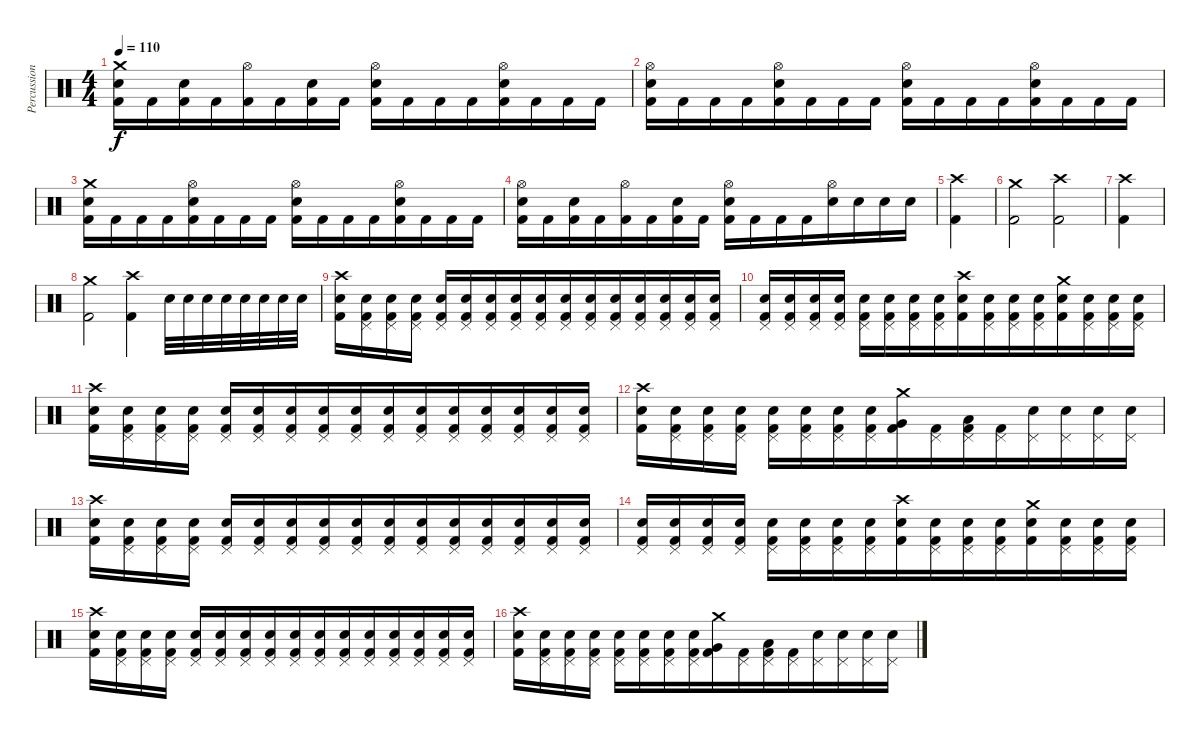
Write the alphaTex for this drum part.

\track ("Percussion" "Percussion") {instrument percussion bank 36}
\staff {score}
\articulation defaults
\ts (4 4)
\tempo 110
\clef neutral
\ks c
("Crash medium (hit)" "Electric Snare (hit)" "Kick (hit) 2").16{dy f} "Kick (hit) 2".16 ("Electric Snare (hit)" "Kick (hit) 2").16 "Kick (hit) 2".16{beam merge} ("Hi-Hat (open)" "Kick (hit) 2").16{beam merge} "Kick (hit) 2".16{beam merge} ("Electric Snare (hit)" "Kick (hit) 2").16 "Kick (hit) 2".16 ("Hi-Hat (open)" "Electric Snare (hit)" "Kick (hit) 2").16 "Kick (hit) 2".16 "Kick (hit) 2".16 "Kick (hit) 2".16{beam merge} ("Hi-Hat (open)" "Electric Snare (hit)" "Kick (hit) 2").16{beam merge} "Kick (hit) 2".16{beam merge} "Kick (hit) 2".16 "Kick (hit) 2".16 |
("Hi-Hat (open)" "Electric Snare (hit)" "Kick (hit) 2").16 "Kick (hit) 2".16 "Kick (hit) 2".16 "Kick (hit) 2".16{beam merge} ("Hi-Hat (open)" "Electric Snare (hit)" "Kick (hit) 2").16{beam merge} "Kick (hit) 2".16{beam merge} "Kick (hit) 2".16 "Kick (hit) 2".16 ("Hi-Hat (open)" "Electric Snare (hit)" "Kick (hit) 2").16 "Kick (hit) 2".16 "Kick (hit) 2".16 "Kick (hit) 2".16{beam merge} ("Hi-Hat (open)" "Electric Snare (hit)" "Kick (hit) 2").16{beam merge} "Kick (hit) 2".16{beam merge} "Kick (hit) 2".16 "Kick (hit) 2".16 |
("Crash medium (hit)" "Electric Snare (hit)" "Kick (hit) 2").16 "Kick (hit) 2".16 "Kick (hit) 2".16 "Kick (hit) 2".16{beam merge} ("Hi-Hat (open)" "Electric Snare (hit)" "Kick (hit) 2").16{beam merge} "Kick (hit) 2".16{beam merge} "Kick (hit) 2".16 "Kick (hit) 2".16 ("Hi-Hat (open)" "Electric Snare (hit)" "Kick (hit) 2").16 "Kick (hit) 2".16 "Kick (hit) 2".16 "Kick (hit) 2".16{beam merge} ("Hi-Hat (open)" "Electric Snare (hit)" "Kick (hit) 2").16{beam merge} "Kick (hit) 2".16{beam merge} "Kick (hit) 2".16 "Kick (hit) 2".16 |
("Hi-Hat (open)" "Electric Snare (hit)" "Kick (hit) 2").16 "Kick (hit) 2".16 ("Electric Snare (hit)" "Kick (hit) 2").16 "Kick (hit) 2".16{beam merge} ("Hi-Hat (open)" "Kick (hit) 2").16{beam merge} "Kick (hit) 2".16{beam merge} ("Electric Snare (hit)" "Kick (hit) 2").16 "Kick (hit) 2".16 ("Hi-Hat (open)" "Electric Snare (hit)" "Kick (hit) 2").16 "Kick (hit) 2".16 "Kick (hit) 2".16 "Kick (hit) 2".16{beam merge} ("Hi-Hat (open)" "Electric Snare (hit)").16{beam merge} "Electric Snare (hit)".16{beam merge} "Electric Snare (hit)".16 "Electric Snare (hit)".16 |
("Crash high (hit)" "Kick (hit) 2").4 |
("Crash medium (hit)" "Kick (hit) 2").2{beam merge} ("Crash high (hit)" "Kick (hit) 2").2 |
("Crash high (hit)" "Kick (hit) 2").4 |
("Crash medium (hit)" "Kick (hit) 2").2 ("Crash high (hit)" "Kick (hit) 2").4{beam merge} "Electric Snare (hit)".32 "Electric Snare (hit)".32 "Electric Snare (hit)".32 "Electric Snare (hit)".32 "Electric Snare (hit)".32{beam merge} "Electric Snare (hit)".32 "Electric Snare (hit)".32{beam merge} "Electric Snare (hit)".32 |
("Crash high (hit)" "Electric Snare (hit)" "Kick (hit) 2").16 ("Pedal Hi-Hat (hit)" "Electric Snare (hit)" "Kick (hit) 2").16 ("Pedal Hi-Hat (hit)" "Electric Snare (hit)" "Kick (hit) 2").16 ("Pedal Hi-Hat (hit)" "Electric Snare (hit)" "Kick (hit) 2").16 ("Pedal Hi-Hat (hit)" "Electric Snare (hit)" "Kick (hit) 2").16 ("Pedal Hi-Hat (hit)" "Electric Snare (hit)" "Kick (hit) 2").16 ("Pedal Hi-Hat (hit)" "Electric Snare (hit)" "Kick (hit) 2").16 ("Pedal Hi-Hat (hit)" "Electric Snare (hit)" "Kick (hit) 2").16{beam merge} ("Pedal Hi-Hat (hit)" "Electric Snare (hit)" "Kick (hit) 2").16{beam merge} ("Pedal Hi-Hat (hit)" "Electric Snare (hit)" "Kick (hit) 2").16{beam merge} ("Pedal Hi-Hat (hit)" "Electric Snare (hit)" "Kick (hit) 2").16 ("Pedal Hi-Hat (hit)" "Electric Snare (hit)" "Kick (hit) 2").16{beam merge} ("Pedal Hi-Hat (hit)" "Electric Snare (hit)" "Kick (hit) 2").16{beam merge} ("Pedal Hi-Hat (hit)" "Electric Snare (hit)" "Kick (hit) 2").16{beam merge} ("Pedal Hi-Hat (hit)" "Electric Snare (hit)" "Kick (hit) 2").16 ("Pedal Hi-Hat (hit)" "Electric Snare (hit)" "Kick (hit) 2").16 |
("Pedal Hi-Hat (hit)" "Electric Snare (hit)" "Kick (hit) 2").16 ("Pedal Hi-Hat (hit)" "Electric Snare (hit)" "Kick (hit) 2").16 ("Pedal Hi-Hat (hit)" "Electric Snare (hit)" "Kick (hit) 2").16 ("Pedal Hi-Hat (hit)" "Electric Snare (hit)" "Kick (hit) 2").16 ("Pedal Hi-Hat (hit)" "Electric Snare (hit)" "Kick (hit) 2").16 ("Pedal Hi-Hat (hit)" "Electric Snare (hit)" "Kick (hit) 2").16 ("Pedal Hi-Hat (hit)" "Electric Snare (hit)" "Kick (hit) 2").16 ("Pedal Hi-Hat (hit)" "Electric Snare (hit)" "Kick (hit) 2").16{beam merge} ("Crash high (hit)" "Electric Snare (hit)" "Kick (hit) 2").16{beam merge} ("Pedal Hi-Hat (hit)" "Electric Snare (hit)" "Kick (hit) 2").16{beam merge} ("Pedal Hi-Hat (hit)" "Electric Snare (hit)" "Kick (hit) 2").16 ("Pedal Hi-Hat (hit)" "Electric Snare (hit)" "Kick (hit) 2").16{beam merge} ("Crash medium (hit)" "Electric Snare (hit)" "Kick (hit) 2").16{beam merge} ("Pedal Hi-Hat (hit)" "Electric Snare (hit)" "Kick (hit) 2").16{beam merge} ("Pedal Hi-Hat (hit)" "Electric Snare (hit)" "Kick (hit) 2").16 ("Pedal Hi-Hat (hit)" "Electric Snare (hit)" "Kick (hit) 2").16 |
("Crash high (hit)" "Electric Snare (hit)" "Kick (hit) 2").16 ("Pedal Hi-Hat (hit)" "Electric Snare (hit)" "Kick (hit) 2").16 ("Pedal Hi-Hat (hit)" "Electric Snare (hit)" "Kick (hit) 2").16 ("Pedal Hi-Hat (hit)" "Electric Snare (hit)" "Kick (hit) 2").16 ("Pedal Hi-Hat (hit)" "Electric Snare (hit)" "Kick (hit) 2").16 ("Pedal Hi-Hat (hit)" "Electric Snare (hit)" "Kick (hit) 2").16 ("Pedal Hi-Hat (hit)" "Electric Snare (hit)" "Kick (hit) 2").16 ("Pedal Hi-Hat (hit)" "Electric Snare (hit)" "Kick (hit) 2").16{beam merge} ("Pedal Hi-Hat (hit)" "Electric Snare (hit)" "Kick (hit) 2").16{beam merge} ("Pedal Hi-Hat (hit)" "Electric Snare (hit)" "Kick (hit) 2").16{beam merge} ("Pedal Hi-Hat (hit)" "Electric Snare (hit)" "Kick (hit) 2").16 ("Pedal Hi-Hat (hit)" "Electric Snare (hit)" "Kick (hit) 2").16{beam merge} ("Pedal Hi-Hat (hit)" "Electric Snare (hit)" "Kick (hit) 2").16{beam merge} ("Pedal Hi-Hat (hit)" "Electric Snare (hit)" "Kick (hit) 2").16{beam merge} ("Pedal Hi-Hat (hit)" "Electric Snare (hit)" "Kick (hit) 2").16 ("Pedal Hi-Hat (hit)" "Electric Snare (hit)" "Kick (hit) 2").16 |
("Crash high (hit)" "Electric Snare (hit)" "Kick (hit) 2").16 ("Pedal Hi-Hat (hit)" "Electric Snare (hit)" "Kick (hit) 2").16 ("Pedal Hi-Hat (hit)" "Electric Snare (hit)" "Kick (hit) 2").16 ("Pedal Hi-Hat (hit)" "Electric Snare (hit)" "Kick (hit) 2").16 ("Pedal Hi-Hat (hit)" "Electric Snare (hit)" "Kick (hit) 2").16 ("Pedal Hi-Hat (hit)" "Electric Snare (hit)" "Kick (hit) 2").16 ("Pedal Hi-Hat (hit)" "Electric Snare (hit)" "Kick (hit) 2").16 ("Pedal Hi-Hat (hit)" "Electric Snare (hit)" "Kick (hit) 2").16{beam merge} ("Crash medium (hit)" "Very Low Tom (hit)" "Kick (hit) 2").16{beam merge} ("Pedal Hi-Hat (hit)" "Kick (hit) 2").16{beam merge} ("Pedal Hi-Hat (hit)" "Low Tom (hit)" "Kick (hit) 2").16 ("Pedal Hi-Hat (hit)" "Kick (hit) 2").16{beam merge} ("Pedal Hi-Hat (hit)" "Electric Snare (hit)").16{beam merge} ("Pedal Hi-Hat (hit)" "Electric Snare (hit)").16{beam merge} ("Pedal Hi-Hat (hit)" "Electric Snare (hit)").16 ("Pedal Hi-Hat (hit)" "Electric Snare (hit)").16 |
("Crash high (hit)" "Electric Snare (hit)" "Kick (hit) 2").16 ("Pedal Hi-Hat (hit)" "Electric Snare (hit)" "Kick (hit) 2").16 ("Pedal Hi-Hat (hit)" "Electric Snare (hit)" "Kick (hit) 2").16 ("Pedal Hi-Hat (hit)" "Electric Snare (hit)" "Kick (hit) 2").16 ("Pedal Hi-Hat (hit)" "Electric Snare (hit)" "Kick (hit) 2").16 ("Pedal Hi-Hat (hit)" "Electric Snare (hit)" "Kick (hit) 2").16 ("Pedal Hi-Hat (hit)" "Electric Snare (hit)" "Kick (hit) 2").16 ("Pedal Hi-Hat (hit)" "Electric Snare (hit)" "Kick (hit) 2").16{beam merge} ("Pedal Hi-Hat (hit)" "Electric Snare (hit)" "Kick (hit) 2").16{beam merge} ("Pedal Hi-Hat (hit)" "Electric Snare (hit)" "Kick (hit) 2").16{beam merge} ("Pedal Hi-Hat (hit)" "Electric Snare (hit)" "Kick (hit) 2").16 ("Pedal Hi-Hat (hit)" "Electric Snare (hit)" "Kick (hit) 2").16{beam merge} ("Pedal Hi-Hat (hit)" "Electric Snare (hit)" "Kick (hit) 2").16{beam merge} ("Pedal Hi-Hat (hit)" "Electric Snare (hit)" "Kick (hit) 2").16{beam merge} ("Pedal Hi-Hat (hit)" "Electric Snare (hit)" "Kick (hit) 2").16 ("Pedal Hi-Hat (hit)" "Electric Snare (hit)" "Kick (hit) 2").16 |
("Pedal Hi-Hat (hit)" "Electric Snare (hit)" "Kick (hit) 2").16 ("Pedal Hi-Hat (hit)" "Electric Snare (hit)" "Kick (hit) 2").16 ("Pedal Hi-Hat (hit)" "Electric Snare (hit)" "Kick (hit) 2").16 ("Pedal Hi-Hat (hit)" "Electric Snare (hit)" "Kick (hit) 2").16 ("Pedal Hi-Hat (hit)" "Electric Snare (hit)" "Kick (hit) 2").16 ("Pedal Hi-Hat (hit)" "Electric Snare (hit)" "Kick (hit) 2").16 ("Pedal Hi-Hat (hit)" "Electric Snare (hit)" "Kick (hit) 2").16 ("Pedal Hi-Hat (hit)" "Electric Snare (hit)" "Kick (hit) 2").16{beam merge} ("Crash high (hit)" "Electric Snare (hit)" "Kick (hit) 2").16{beam merge} ("Pedal Hi-Hat (hit)" "Electric Snare (hit)" "Kick (hit) 2").16{beam merge} ("Pedal Hi-Hat (hit)" "Electric Snare (hit)" "Kick (hit) 2").16 ("Pedal Hi-Hat (hit)" "Electric Snare (hit)" "Kick (hit) 2").16{beam merge} ("Crash medium (hit)" "Electric Snare (hit)" "Kick (hit) 2").16{beam merge} ("Pedal Hi-Hat (hit)" "Electric Snare (hit)" "Kick (hit) 2").16{beam merge} ("Pedal Hi-Hat (hit)" "Electric Snare (hit)" "Kick (hit) 2").16 ("Pedal Hi-Hat (hit)" "Electric Snare (hit)" "Kick (hit) 2").16 |
("Crash high (hit)" "Electric Snare (hit)" "Kick (hit) 2").16 ("Pedal Hi-Hat (hit)" "Electric Snare (hit)" "Kick (hit) 2").16 ("Pedal Hi-Hat (hit)" "Electric Snare (hit)" "Kick (hit) 2").16 ("Pedal Hi-Hat (hit)" "Electric Snare (hit)" "Kick (hit) 2").16 ("Pedal Hi-Hat (hit)" "Electric Snare (hit)" "Kick (hit) 2").16 ("Pedal Hi-Hat (hit)" "Electric Snare (hit)" "Kick (hit) 2").16 ("Pedal Hi-Hat (hit)" "Electric Snare (hit)" "Kick (hit) 2").16 ("Pedal Hi-Hat (hit)" "Electric Snare (hit)" "Kick (hit) 2").16{beam merge} ("Pedal Hi-Hat (hit)" "Electric Snare (hit)" "Kick (hit) 2").16{beam merge} ("Pedal Hi-Hat (hit)" "Electric Snare (hit)" "Kick (hit) 2").16{beam merge} ("Pedal Hi-Hat (hit)" "Electric Snare (hit)" "Kick (hit) 2").16 ("Pedal Hi-Hat (hit)" "Electric Snare (hit)" "Kick (hit) 2").16{beam merge} ("Pedal Hi-Hat (hit)" "Electric Snare (hit)" "Kick (hit) 2").16{beam merge} ("Pedal Hi-Hat (hit)" "Electric Snare (hit)" "Kick (hit) 2").16{beam merge} ("Pedal Hi-Hat (hit)" "Electric Snare (hit)" "Kick (hit) 2").16 ("Pedal Hi-Hat (hit)" "Electric Snare (hit)" "Kick (hit) 2").16 |
("Crash high (hit)" "Electric Snare (hit)" "Kick (hit) 2").16 ("Pedal Hi-Hat (hit)" "Electric Snare (hit)" "Kick (hit) 2").16 ("Pedal Hi-Hat (hit)" "Electric Snare (hit)" "Kick (hit) 2").16 ("Pedal Hi-Hat (hit)" "Electric Snare (hit)" "Kick (hit) 2").16 ("Pedal Hi-Hat (hit)" "Electric Snare (hit)" "Kick (hit) 2").16 ("Pedal Hi-Hat (hit)" "Electric Snare (hit)" "Kick (hit) 2").16 ("Pedal Hi-Hat (hit)" "Electric Snare (hit)" "Kick (hit) 2").16 ("Pedal Hi-Hat (hit)" "Electric Snare (hit)" "Kick (hit) 2").16{beam merge} ("Crash medium (hit)" "Very Low Tom (hit)" "Kick (hit) 2").16{beam merge} ("Pedal Hi-Hat (hit)" "Kick (hit) 2").16{beam merge} ("Pedal Hi-Hat (hit)" "Low Tom (hit)" "Kick (hit) 2").16 ("Pedal Hi-Hat (hit)" "Kick (hit) 2").16{beam merge} ("Pedal Hi-Hat (hit)" "Electric Snare (hit)").16{beam merge} ("Pedal Hi-Hat (hit)" "Electric Snare (hit)").16{beam merge} ("Pedal Hi-Hat (hit)" "Electric Snare (hit)").16 ("Pedal Hi-Hat (hit)" "Electric Snare (hit)").16
